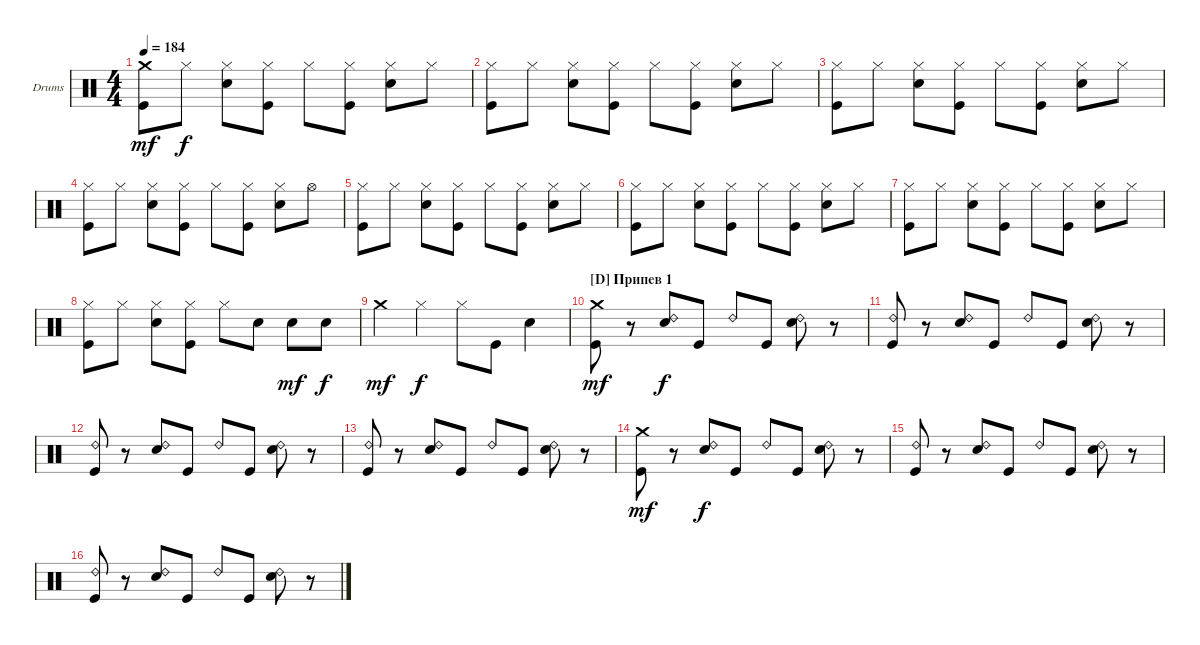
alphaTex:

\bracketExtendMode groupsimilarinstruments
\firstSystemTrackNameOrientation horizontal
\otherSystemsTrackNameOrientation horizontal
\track ("Drumkit" "Drums") {instrument percussion}
\staff {score}
\articulation defaults
\ts (4 4)
\tempo 184
\clef neutral
\ks c
("Crash medium (hit)" "Kick (hit)").8{dy mf} "Hi-Hat (closed)".8{dy f} ("Hi-Hat (closed)" "Snare (hit) 2").8 ("Hi-Hat (closed)" "Kick (hit)").8 "Hi-Hat (closed)".8 ("Hi-Hat (closed)" "Kick (hit)").8 ("Hi-Hat (closed)" "Snare (hit) 2").8 "Hi-Hat (closed)".8 |
("Hi-Hat (closed)" "Kick (hit)").8 "Hi-Hat (closed)".8 ("Hi-Hat (closed)" "Snare (hit) 2").8 ("Hi-Hat (closed)" "Kick (hit)").8 "Hi-Hat (closed)".8 ("Hi-Hat (closed)" "Kick (hit)").8 ("Hi-Hat (closed)" "Snare (hit) 2").8 "Hi-Hat (closed)".8 |
("Hi-Hat (closed)" "Kick (hit)").8 "Hi-Hat (closed)".8 ("Hi-Hat (closed)" "Snare (hit) 2").8 ("Hi-Hat (closed)" "Kick (hit)").8 "Hi-Hat (closed)".8 ("Hi-Hat (closed)" "Kick (hit)").8 ("Hi-Hat (closed)" "Snare (hit) 2").8 "Hi-Hat (closed)".8 |
("Hi-Hat (closed)" "Kick (hit)").8 "Hi-Hat (closed)".8 ("Hi-Hat (closed)" "Snare (hit) 2").8 ("Hi-Hat (closed)" "Kick (hit)").8 "Hi-Hat (closed)".8 ("Hi-Hat (closed)" "Kick (hit)").8 ("Hi-Hat (closed)" "Snare (hit) 2").8 "Hi-Hat (open)".8 |
("Hi-Hat (closed)" "Kick (hit)").8 "Hi-Hat (closed)".8 ("Hi-Hat (closed)" "Snare (hit) 2").8 ("Hi-Hat (closed)" "Kick (hit)").8 "Hi-Hat (closed)".8 ("Hi-Hat (closed)" "Kick (hit)").8 ("Hi-Hat (closed)" "Snare (hit) 2").8 "Hi-Hat (closed)".8 |
("Hi-Hat (closed)" "Kick (hit)").8 "Hi-Hat (closed)".8 ("Hi-Hat (closed)" "Snare (hit) 2").8 ("Hi-Hat (closed)" "Kick (hit)").8 "Hi-Hat (closed)".8 ("Hi-Hat (closed)" "Kick (hit)").8 ("Hi-Hat (closed)" "Snare (hit) 2").8 "Hi-Hat (closed)".8 |
("Hi-Hat (closed)" "Kick (hit)").8 "Hi-Hat (closed)".8 ("Hi-Hat (closed)" "Snare (hit) 2").8 ("Hi-Hat (closed)" "Kick (hit)").8 "Hi-Hat (closed)".8 ("Hi-Hat (closed)" "Kick (hit)").8 ("Hi-Hat (closed)" "Snare (hit) 2").8 "Hi-Hat (closed)".8 |
("Hi-Hat (closed)" "Kick (hit)").8 "Hi-Hat (closed)".8 ("Hi-Hat (closed)" "Snare (hit) 2").8 ("Hi-Hat (closed)" "Kick (hit)").8 "Hi-Hat (closed)".8 "Snare (hit) 2".8 "Snare (hit) 2".8{dy mf} "Snare (hit) 2".8{dy f} |
"Crash medium (hit)".4{dy mf} "Hi-Hat (closed)".4{dy f} "Hi-Hat (closed)".8 "Kick (hit)".8 "Snare (hit) 2".4 |
\section ("D" "Припев 1")
("Crash medium (hit)" "Kick (hit)").8{dy mf} r.8 ("Ride (bell) 2" "Snare (hit) 2").8{dy f} "Kick (hit)".8 "Ride (bell) 2".8 "Kick (hit)".8 ("Ride (bell) 2" "Snare (hit) 2").8 r.8 |
("Ride (bell) 2" "Kick (hit)").8 r.8 ("Ride (bell) 2" "Snare (hit) 2").8 "Kick (hit)".8 "Ride (bell) 2".8 "Kick (hit)".8 ("Ride (bell) 2" "Snare (hit) 2").8 r.8 |
("Ride (bell) 2" "Kick (hit)").8 r.8 ("Ride (bell) 2" "Snare (hit) 2").8 "Kick (hit)".8 "Ride (bell) 2".8 "Kick (hit)".8 ("Ride (bell) 2" "Snare (hit) 2").8 r.8 |
("Ride (bell) 2" "Kick (hit)").8 r.8 ("Ride (bell) 2" "Snare (hit) 2").8 "Kick (hit)".8 "Ride (bell) 2".8 "Kick (hit)".8 ("Ride (bell) 2" "Snare (hit) 2").8 r.8 |
("Crash medium (hit)" "Kick (hit)").8{dy mf} r.8 ("Ride (bell) 2" "Snare (hit) 2").8{dy f} "Kick (hit)".8 "Ride (bell) 2".8 "Kick (hit)".8 ("Ride (bell) 2" "Snare (hit) 2").8 r.8 |
("Ride (bell) 2" "Kick (hit)").8 r.8 ("Ride (bell) 2" "Snare (hit) 2").8 "Kick (hit)".8 "Ride (bell) 2".8 "Kick (hit)".8 ("Ride (bell) 2" "Snare (hit) 2").8 r.8 |
("Ride (bell) 2" "Kick (hit)").8 r.8 ("Ride (bell) 2" "Snare (hit) 2").8 "Kick (hit)".8 "Ride (bell) 2".8 "Kick (hit)".8 ("Ride (bell) 2" "Snare (hit) 2").8 r.8
